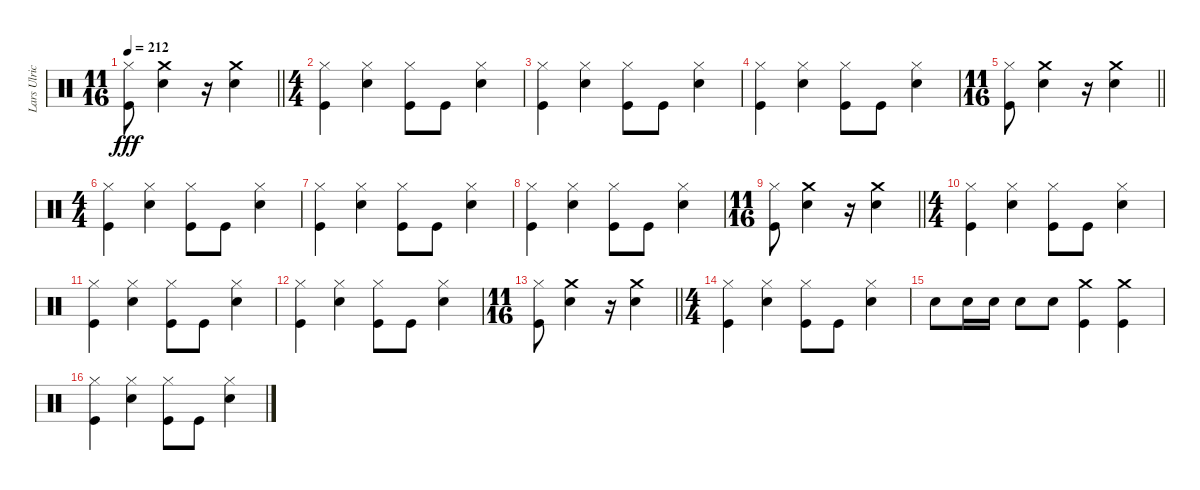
\track ("Lars Ulrich" "Lars Ulric") {instrument percussion}
\staff {score}
\articulation defaults
\ts (11 16)
\tempo 212
\clef neutral
\barLineRight lightlight
\ks c
("Kick (hit)" "Hi-Hat (closed)").8{dy fff} ("Crash medium (hit)" "Snare (hit) 2").4 r.16 ("Crash medium (hit)" "Snare (hit) 2").4 |
\ts (4 4)
("Hi-Hat (closed)" "Kick (hit)").4 ("Snare (hit) 2" "Hi-Hat (closed)").4 ("Kick (hit)" "Hi-Hat (closed)").8 "Kick (hit)".8 ("Snare (hit) 2" "Hi-Hat (closed)").4 |
("Kick (hit)" "Hi-Hat (closed)").4 ("Snare (hit) 2" "Hi-Hat (closed)").4 ("Hi-Hat (closed)" "Kick (hit)").8 "Kick (hit)".8 ("Snare (hit) 2" "Hi-Hat (closed)").4 |
("Kick (hit)" "Hi-Hat (closed)").4 ("Snare (hit) 2" "Hi-Hat (closed)").4 ("Kick (hit)" "Hi-Hat (closed)").8 "Kick (hit)".8 ("Hi-Hat (closed)" "Snare (hit) 2").4 |
\ts (11 16)
\barLineRight lightlight
("Kick (hit)" "Hi-Hat (closed)").8 ("Crash medium (hit)" "Snare (hit) 2").4 r.16 ("Crash medium (hit)" "Snare (hit) 2").4 |
\ts (4 4)
("Hi-Hat (closed)" "Kick (hit)").4 ("Snare (hit) 2" "Hi-Hat (closed)").4 ("Kick (hit)" "Hi-Hat (closed)").8 "Kick (hit)".8 ("Snare (hit) 2" "Hi-Hat (closed)").4 |
("Kick (hit)" "Hi-Hat (closed)").4 ("Snare (hit) 2" "Hi-Hat (closed)").4 ("Hi-Hat (closed)" "Kick (hit)").8 "Kick (hit)".8 ("Snare (hit) 2" "Hi-Hat (closed)").4 |
("Kick (hit)" "Hi-Hat (closed)").4 ("Snare (hit) 2" "Hi-Hat (closed)").4 ("Kick (hit)" "Hi-Hat (closed)").8 "Kick (hit)".8 ("Hi-Hat (closed)" "Snare (hit) 2").4 |
\ts (11 16)
\barLineRight lightlight
("Kick (hit)" "Hi-Hat (closed)").8 ("Crash medium (hit)" "Snare (hit) 2").4 r.16 ("Crash medium (hit)" "Snare (hit) 2").4 |
\ts (4 4)
("Hi-Hat (closed)" "Kick (hit)").4 ("Snare (hit) 2" "Hi-Hat (closed)").4 ("Kick (hit)" "Hi-Hat (closed)").8 "Kick (hit)".8 ("Snare (hit) 2" "Hi-Hat (closed)").4 |
("Kick (hit)" "Hi-Hat (closed)").4 ("Snare (hit) 2" "Hi-Hat (closed)").4 ("Hi-Hat (closed)" "Kick (hit)").8 "Kick (hit)".8 ("Snare (hit) 2" "Hi-Hat (closed)").4 |
("Kick (hit)" "Hi-Hat (closed)").4 ("Snare (hit) 2" "Hi-Hat (closed)").4 ("Kick (hit)" "Hi-Hat (closed)").8 "Kick (hit)".8 ("Hi-Hat (closed)" "Snare (hit) 2").4 |
\ts (11 16)
\barLineRight lightlight
("Kick (hit)" "Hi-Hat (closed)").8 ("Crash medium (hit)" "Snare (hit) 2").4 r.16 ("Crash medium (hit)" "Snare (hit) 2").4 |
\ts (4 4)
("Hi-Hat (closed)" "Kick (hit)").4 ("Snare (hit) 2" "Hi-Hat (closed)").4 ("Kick (hit)" "Hi-Hat (closed)").8 "Kick (hit)".8 ("Snare (hit) 2" "Hi-Hat (closed)").4 |
"Snare (hit) 2".8 "Snare (hit) 2".16 "Snare (hit) 2".16 "Snare (hit) 2".8 "Snare (hit) 2".8 ("Kick (hit)" "Crash medium (hit)").4 ("Kick (hit)" "Crash medium (hit)").4 |
("Kick (hit)" "Hi-Hat (closed)").4 ("Snare (hit) 2" "Hi-Hat (closed)").4 ("Kick (hit)" "Hi-Hat (closed)").8 "Kick (hit)".8 ("Snare (hit) 2" "Hi-Hat (closed)").4
